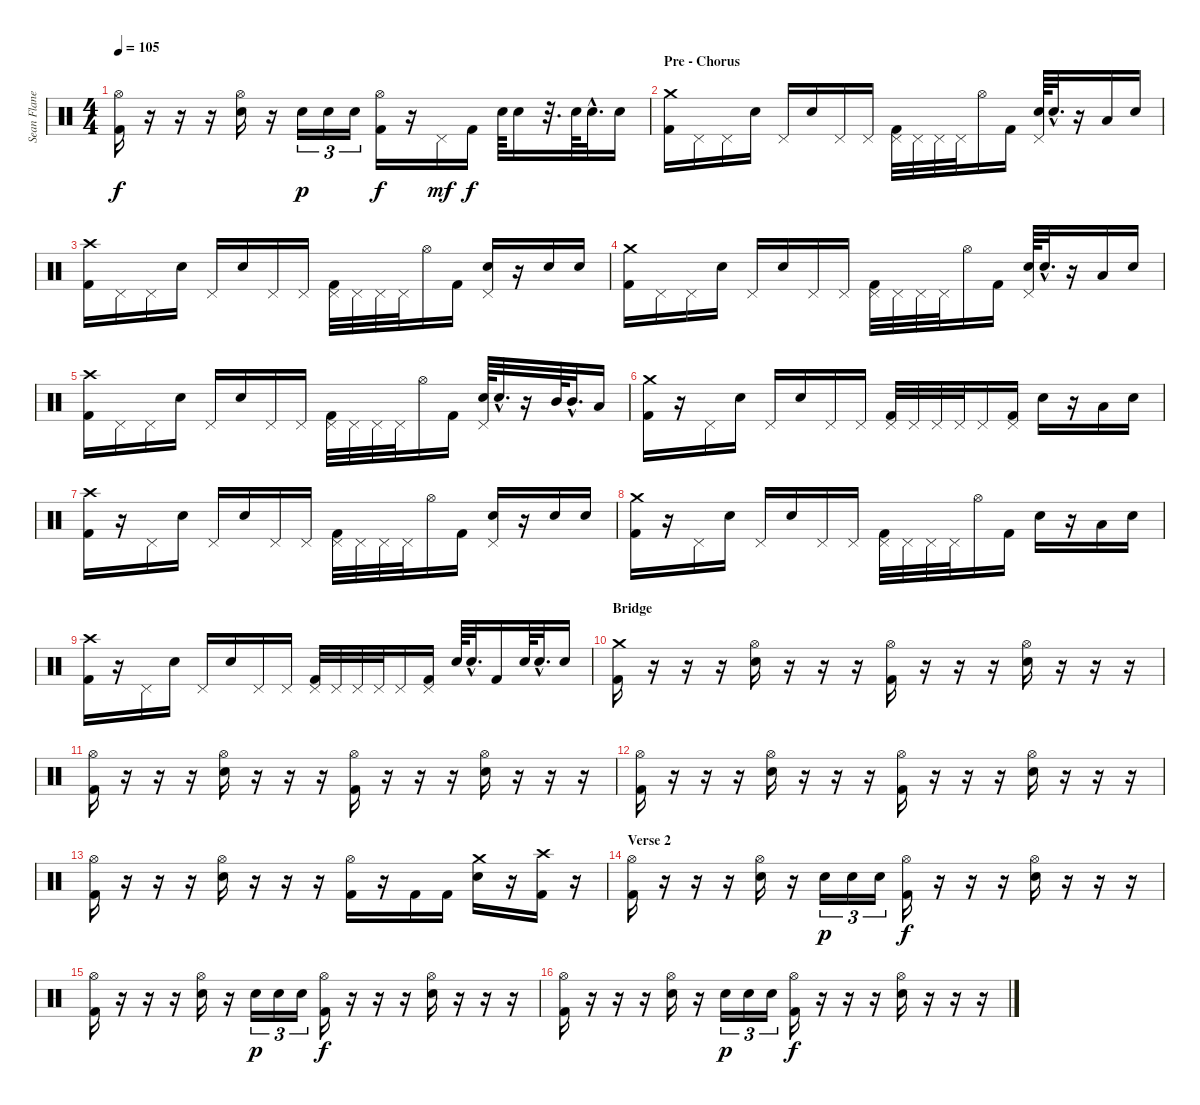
\track ("Sean Flanegan [Drums]" "Sean Flane") {instrument percussion}
\staff {score}
\articulation defaults
\ts (4 4)
\tempo 105
\clef neutral
\ks c
("Hi-Hat (open)" "Kick (hit) 2").16{dy f} r.16 r.16 r.16 ("Hi-Hat (open)" "Electric Snare (hit)").16 r.16 "Electric Snare (hit)".16{tu (3 2) dy p} "Electric Snare (hit)".16{tu (3 2)} "Electric Snare (hit)".16{tu (3 2)} ("Hi-Hat (open)" "Kick (hit) 2").16{dy f} r.16 "Pedal Hi-Hat (hit)".16{dy mf} "Kick (hit) 2".16{dy f} "Electric Snare (hit)".64 "Electric Snare (hit)".16 r.32{d} "Electric Snare (hit)".64 "Electric Snare (hit)"{hac}.32{d} "Electric Snare (hit)".16 |
\section ("" "Pre - Chorus")
("Crash medium (hit)" "Kick (hit) 2").16 "Pedal Hi-Hat (hit)".16 "Pedal Hi-Hat (hit)".16 "Electric Snare (hit)".16 "Pedal Hi-Hat (hit)".16 "Electric Snare (hit)".16 "Pedal Hi-Hat (hit)".16 "Pedal Hi-Hat (hit)".16 ("Pedal Hi-Hat (hit)" "Kick (hit) 2").32 "Pedal Hi-Hat (hit)".32 "Pedal Hi-Hat (hit)".32 "Pedal Hi-Hat (hit)".32 "Hi-Hat (open)".16 "Kick (hit) 2".16 ("Pedal Hi-Hat (hit)" "Electric Snare (hit)").64 "Electric Snare (hit)"{hac}.32{d} r.16 "Low Tom (hit)".16 "Electric Snare (hit)".16 |
("Crash high (hit)" "Kick (hit) 2").16 "Pedal Hi-Hat (hit)".16 "Pedal Hi-Hat (hit)".16 "Electric Snare (hit)".16 "Pedal Hi-Hat (hit)".16 "Electric Snare (hit)".16 "Pedal Hi-Hat (hit)".16 "Pedal Hi-Hat (hit)".16 ("Pedal Hi-Hat (hit)" "Kick (hit) 2").32 "Pedal Hi-Hat (hit)".32 "Pedal Hi-Hat (hit)".32 "Pedal Hi-Hat (hit)".32 "Hi-Hat (open)".16 "Kick (hit) 2".16 ("Pedal Hi-Hat (hit)" "Electric Snare (hit)").16 r.16 "Electric Snare (hit)".16 "Electric Snare (hit)".16 |
("Crash medium (hit)" "Kick (hit) 2").16 "Pedal Hi-Hat (hit)".16 "Pedal Hi-Hat (hit)".16 "Electric Snare (hit)".16 "Pedal Hi-Hat (hit)".16 "Electric Snare (hit)".16 "Pedal Hi-Hat (hit)".16 "Pedal Hi-Hat (hit)".16 ("Pedal Hi-Hat (hit)" "Kick (hit) 2").32 "Pedal Hi-Hat (hit)".32 "Pedal Hi-Hat (hit)".32 "Pedal Hi-Hat (hit)".32 "Hi-Hat (open)".16 "Kick (hit) 2".16 ("Pedal Hi-Hat (hit)" "Electric Snare (hit)").64 "Electric Snare (hit)"{hac}.32{d} r.16 "Low Tom (hit)".16 "Electric Snare (hit)".16 |
("Crash high (hit)" "Kick (hit) 2").16 "Pedal Hi-Hat (hit)".16 "Pedal Hi-Hat (hit)".16 "Electric Snare (hit)".16 "Pedal Hi-Hat (hit)".16 "Electric Snare (hit)".16 "Pedal Hi-Hat (hit)".16 "Pedal Hi-Hat (hit)".16 ("Pedal Hi-Hat (hit)" "Kick (hit) 2").32 "Pedal Hi-Hat (hit)".32 "Pedal Hi-Hat (hit)".32 "Pedal Hi-Hat (hit)".32 "Hi-Hat (open)".16 "Kick (hit) 2".16 ("Pedal Hi-Hat (hit)" "Electric Snare (hit)").64 "Electric Snare (hit)"{hac}.32{d} r.16 "Mid Tom (hit)".64 "Mid Tom (hit)"{hac}.32{d} "Low Tom (hit)".16 |
("Crash medium (hit)" "Kick (hit) 2").16 r.16 "Pedal Hi-Hat (hit)".16 "Electric Snare (hit)".16 "Pedal Hi-Hat (hit)".16 "Electric Snare (hit)".16 "Pedal Hi-Hat (hit)".16 "Pedal Hi-Hat (hit)".16 ("Pedal Hi-Hat (hit)" "Kick (hit) 2").32 "Pedal Hi-Hat (hit)".32 "Pedal Hi-Hat (hit)".32 "Pedal Hi-Hat (hit)".32 "Pedal Hi-Hat (hit)".16 ("Pedal Hi-Hat (hit)" "Kick (hit) 2").16 "Electric Snare (hit)".16 r.16 "Low Tom (hit)".16 "Electric Snare (hit)".16 |
("Crash high (hit)" "Kick (hit) 2").16 r.16 "Pedal Hi-Hat (hit)".16 "Electric Snare (hit)".16 "Pedal Hi-Hat (hit)".16 "Electric Snare (hit)".16 "Pedal Hi-Hat (hit)".16 "Pedal Hi-Hat (hit)".16 ("Pedal Hi-Hat (hit)" "Kick (hit) 2").32 "Pedal Hi-Hat (hit)".32 "Pedal Hi-Hat (hit)".32 "Pedal Hi-Hat (hit)".32 "Hi-Hat (open)".16 "Kick (hit) 2".16 ("Pedal Hi-Hat (hit)" "Electric Snare (hit)").16 r.16 "Electric Snare (hit)".16 "Electric Snare (hit)".16 |
("Crash medium (hit)" "Kick (hit) 2").16 r.16 "Pedal Hi-Hat (hit)".16 "Electric Snare (hit)".16 "Pedal Hi-Hat (hit)".16 "Electric Snare (hit)".16 "Pedal Hi-Hat (hit)".16 "Pedal Hi-Hat (hit)".16 ("Pedal Hi-Hat (hit)" "Kick (hit) 2").32 "Pedal Hi-Hat (hit)".32 "Pedal Hi-Hat (hit)".32 "Pedal Hi-Hat (hit)".32 "Hi-Hat (open)".16 "Kick (hit) 2".16 "Electric Snare (hit)".16 r.16 "Low Tom (hit)".16 "Electric Snare (hit)".16 |
("Crash high (hit)" "Kick (hit) 2").16 r.16 "Pedal Hi-Hat (hit)".16 "Electric Snare (hit)".16 "Pedal Hi-Hat (hit)".16 "Electric Snare (hit)".16 "Pedal Hi-Hat (hit)".16 "Pedal Hi-Hat (hit)".16 ("Pedal Hi-Hat (hit)" "Kick (hit) 2").32 "Pedal Hi-Hat (hit)".32 "Pedal Hi-Hat (hit)".32 "Pedal Hi-Hat (hit)".32 "Pedal Hi-Hat (hit)".16 ("Pedal Hi-Hat (hit)" "Kick (hit) 2").16 "Electric Snare (hit)".64 "Electric Snare (hit)"{hac}.32{d} "Kick (hit) 2".16 "Electric Snare (hit)".64 "Electric Snare (hit)"{hac}.32{d} "Electric Snare (hit)".16 |
\section ("" "Bridge")
("Crash medium (hit)" "Kick (hit) 2").16 r.16 r.16 r.16 ("Hi-Hat (open)" "Electric Snare (hit)").16 r.16 r.16 r.16 ("Hi-Hat (open)" "Kick (hit) 2").16 r.16 r.16 r.16 ("Hi-Hat (open)" "Electric Snare (hit)").16 r.16 r.16 r.16 |
("Hi-Hat (open)" "Kick (hit) 2").16 r.16 r.16 r.16 ("Hi-Hat (open)" "Electric Snare (hit)").16 r.16 r.16 r.16 ("Hi-Hat (open)" "Kick (hit) 2").16 r.16 r.16 r.16 ("Hi-Hat (open)" "Electric Snare (hit)").16 r.16 r.16 r.16 |
("Hi-Hat (open)" "Kick (hit) 2").16 r.16 r.16 r.16 ("Hi-Hat (open)" "Electric Snare (hit)").16 r.16 r.16 r.16 ("Hi-Hat (open)" "Kick (hit) 2").16 r.16 r.16 r.16 ("Hi-Hat (open)" "Electric Snare (hit)").16 r.16 r.16 r.16 |
("Hi-Hat (open)" "Kick (hit) 2").16 r.16 r.16 r.16 ("Hi-Hat (open)" "Electric Snare (hit)").16 r.16 r.16 r.16 ("Hi-Hat (open)" "Kick (hit) 2").16 r.16 "Kick (hit) 2".16 "Kick (hit) 2".16 ("Crash medium (hit)" "Electric Snare (hit)").16 r.16 ("Crash high (hit)" "Kick (hit) 2").16 r.16 |
\section ("" "Verse 2")
("Hi-Hat (open)" "Kick (hit) 2").16 r.16 r.16 r.16 ("Hi-Hat (open)" "Electric Snare (hit)").16 r.16 "Electric Snare (hit)".16{tu (3 2) dy p} "Electric Snare (hit)".16{tu (3 2)} "Electric Snare (hit)".16{tu (3 2)} ("Hi-Hat (open)" "Kick (hit) 2").16{dy f} r.16 r.16 r.16 ("Hi-Hat (open)" "Electric Snare (hit)").16 r.16 r.16 r.16 |
("Hi-Hat (open)" "Kick (hit) 2").16 r.16 r.16 r.16 ("Hi-Hat (open)" "Electric Snare (hit)").16 r.16 "Electric Snare (hit)".16{tu (3 2) dy p} "Electric Snare (hit)".16{tu (3 2)} "Electric Snare (hit)".16{tu (3 2)} ("Hi-Hat (open)" "Kick (hit) 2").16{dy f} r.16 r.16 r.16 ("Hi-Hat (open)" "Electric Snare (hit)").16 r.16 r.16 r.16 |
("Hi-Hat (open)" "Kick (hit) 2").16 r.16 r.16 r.16 ("Hi-Hat (open)" "Electric Snare (hit)").16 r.16 "Electric Snare (hit)".16{tu (3 2) dy p} "Electric Snare (hit)".16{tu (3 2)} "Electric Snare (hit)".16{tu (3 2)} ("Hi-Hat (open)" "Kick (hit) 2").16{dy f} r.16 r.16 r.16 ("Hi-Hat (open)" "Electric Snare (hit)").16 r.16 r.16 r.16
